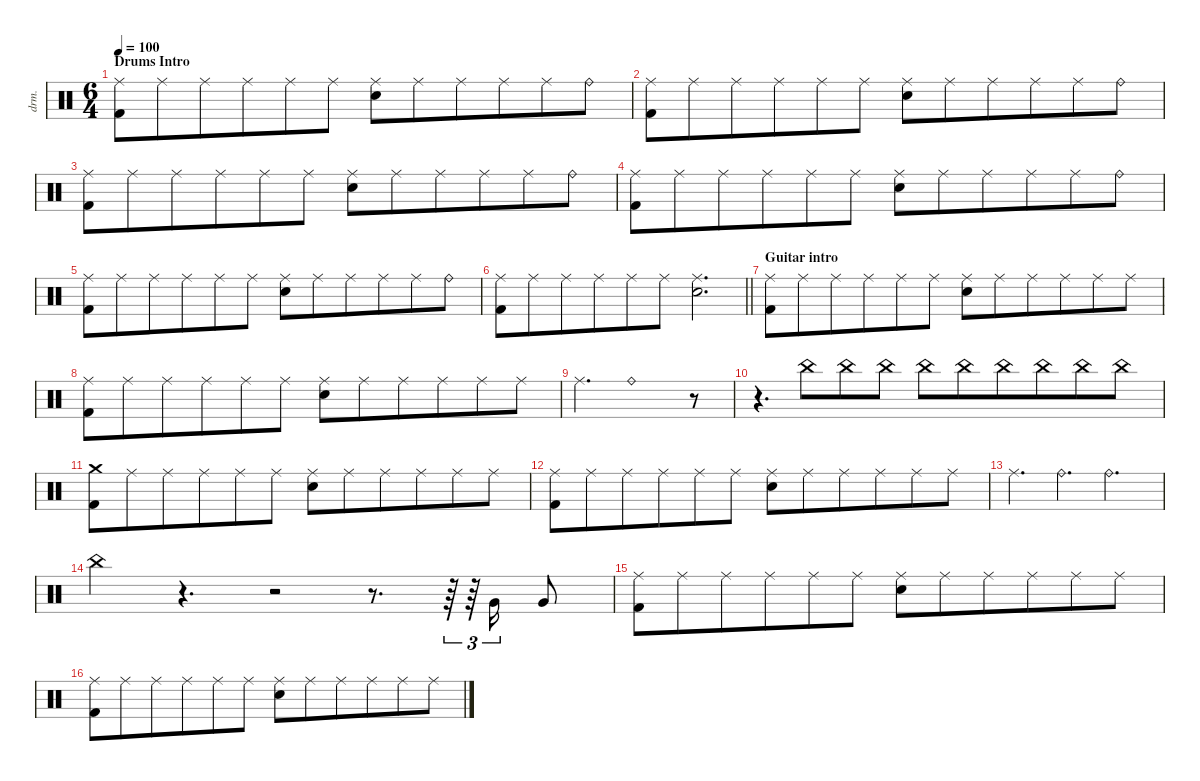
\defaultSystemsLayout 4
\hideDynamics
\bracketExtendMode nobrackets
\otherSystemsTrackNameOrientation horizontal
\track ("Percussions" "drm.") {instrument percussion}
\staff {score}
\articulation defaults
\ts (6 4)
\beaming (8 6 6)
\section ("" "Drums Intro")
\tempo 100
\clef neutral
\ks c
("Kick (hit) 2" "Ride (middle)").8{dy f beam Down} "Ride (middle)".8{beam Down} "Ride (middle)".8{beam Down} "Ride (middle)".8{beam Down} "Ride (middle)".8{beam Down} "Ride (middle)".8{beam Down} ("Snare (hit) 2" "Ride (middle)").8{dy fff beam Down} "Ride (middle)".8{dy f beam Down} "Ride (middle)".8{beam Down} "Ride (middle)".8{beam Down} "Ride (middle)".8{beam Down} "Ride (bell)".8{beam Down} |
("Kick (hit) 2" "Ride (middle)").8{beam Down} "Ride (middle)".8{beam Down} "Ride (middle)".8{beam Down} "Ride (middle)".8{beam Down} "Ride (middle)".8{beam Down} "Ride (middle)".8{beam Down} ("Snare (hit) 2" "Ride (middle)").8{dy fff beam Down} "Ride (middle)".8{dy f beam Down} "Ride (middle)".8{beam Down} "Ride (middle)".8{beam Down} "Ride (middle)".8{beam Down} "Ride (bell)".8{beam Down} |
("Kick (hit) 2" "Ride (middle)").8{beam Down} "Ride (middle)".8{beam Down} "Ride (middle)".8{beam Down} "Ride (middle)".8{beam Down} "Ride (middle)".8{beam Down} "Ride (middle)".8{beam Down} ("Snare (hit) 2" "Ride (middle)").8{dy fff beam Down} "Ride (middle)".8{dy f beam Down} "Ride (middle)".8{beam Down} "Ride (middle)".8{beam Down} "Ride (middle)".8{beam Down} "Ride (bell)".8{beam Down} |
("Kick (hit) 2" "Ride (middle)").8{beam Down} "Ride (middle)".8{beam Down} "Ride (middle)".8{beam Down} "Ride (middle)".8{beam Down} "Ride (middle)".8{beam Down} "Ride (middle)".8{beam Down} ("Snare (hit) 2" "Ride (middle)").8{dy fff beam Down} "Ride (middle)".8{dy f beam Down} "Ride (middle)".8{beam Down} "Ride (middle)".8{beam Down} "Ride (middle)".8{beam Down} "Ride (bell)".8{beam Down} |
("Kick (hit) 2" "Ride (middle)").8{beam Down} "Ride (middle)".8{beam Down} "Ride (middle)".8{beam Down} "Ride (middle)".8{beam Down} "Ride (middle)".8{beam Down} "Ride (middle)".8{beam Down} ("Snare (hit) 2" "Ride (middle)").8{dy fff beam Down} "Ride (middle)".8{dy f beam Down} "Ride (middle)".8{beam Down} "Ride (middle)".8{beam Down} "Ride (middle)".8{beam Down} "Ride (bell)".8{beam Down} |
\barLineRight lightlight
("Kick (hit) 2" "Ride (middle)").8{beam Down} "Ride (middle)".8{beam Down} "Ride (middle)".8{beam Down} "Ride (middle)".8{beam Down} "Ride (middle)".8{beam Down} "Ride (middle)".8{beam Down} ("Snare (hit) 2" "Ride (middle)").2{d dy fff beam Down} |
\section ("" "Guitar intro")
("Kick (hit) 2" "Ride (middle)").8{dy f beam Down} "Ride (middle)".8{beam Down} "Ride (middle)".8{beam Down} "Ride (middle)".8{beam Down} "Ride (middle)".8{beam Down} "Ride (middle)".8{beam Down} ("Snare (hit) 2" "Ride (middle)").8{dy fff beam Down} "Ride (middle)".8{dy f beam Down} "Ride (middle)".8{beam Down} "Ride (middle)".8{beam Down} "Ride (middle)".8{beam Down} "Ride (middle)".8{beam Down} |
("Kick (hit) 2" "Ride (middle)").8{beam Down} "Ride (middle)".8{beam Down} "Ride (middle)".8{beam Down} "Ride (middle)".8{beam Down} "Ride (middle)".8{beam Down} "Ride (middle)".8{beam Down} ("Snare (hit) 2" "Ride (middle)").8{dy fff beam Down} "Ride (middle)".8{dy f beam Down} "Ride (middle)".8{beam Down} "Ride (middle)".8{beam Down} "Ride (middle)".8{beam Down} "Ride (middle)".8{beam Down} |
"Ride (middle)".4{d beam Down} "Ride (bell)".1{beam Down} r.8{beam Down} |
r.4{d beam Down} "China (hit)".8{dy ppp beam Down} "China (hit)".8{dy pp beam Down} "China (hit)".8{dy p beam Down} "China (hit)".8{dy mp beam Down} "China (hit)".8{dy mf beam Down} "China (hit)".8{dy f beam Down} "China (hit)".8{dy ff beam Down} "China (hit)".8{beam Down} "China (hit)".8{dy fff beam Down} |
("Crash medium (hit)" "Kick (hit) 2").8{dy f beam Down} "Ride (middle)".8{beam Down} "Ride (middle)".8{beam Down} "Ride (middle)".8{beam Down} "Ride (middle)".8{beam Down} "Ride (middle)".8{beam Down} ("Snare (hit) 2" "Ride (middle)").8{dy fff beam Down} "Ride (middle)".8{dy f beam Down} "Ride (middle)".8{beam Down} "Ride (middle)".8{beam Down} "Ride (middle)".8{beam Down} "Ride (middle)".8{beam Down} |
("Kick (hit) 2" "Ride (middle)").8{beam Down} "Ride (middle)".8{beam Down} "Ride (middle)".8{beam Down} "Ride (middle)".8{beam Down} "Ride (middle)".8{beam Down} "Ride (middle)".8{beam Down} ("Snare (hit) 2" "Ride (middle)").8{dy fff beam Down} "Ride (middle)".8{dy f beam Down} "Ride (middle)".8{beam Down} "Ride (middle)".8{beam Down} "Ride (middle)".8{beam Down} "Ride (middle)".8{beam Down} |
"Ride (middle)".4{d beam Down} "Ride (bell)".4{d beam Down} "Ride (bell)".2{d beam Down} |
"China (hit)".4{dy fff beam Down} r.4{d beam Down} r.2{beam Down} r.8{d beam Down} r.64{tu (3 2) beam Down} r.64{tu (3 2) beam Down} "Very Low Tom (hit)".16{tu (3 2) beam Up} "Very Low Tom (hit)".8{beam Up} |
("Kick (hit) 2" "Ride (middle)").8{dy f beam Down} "Ride (middle)".8{beam Down} "Ride (middle)".8{beam Down} "Ride (middle)".8{beam Down} "Ride (middle)".8{beam Down} "Ride (middle)".8{beam Down} ("Snare (hit) 2" "Ride (middle)").8{dy fff beam Down} "Ride (middle)".8{dy f beam Down} "Ride (middle)".8{beam Down} "Ride (middle)".8{beam Down} "Ride (middle)".8{beam Down} "Ride (middle)".8{beam Down} |
("Kick (hit) 2" "Ride (middle)").8{beam Down} "Ride (middle)".8{beam Down} "Ride (middle)".8{beam Down} "Ride (middle)".8{beam Down} "Ride (middle)".8{beam Down} "Ride (middle)".8{beam Down} ("Snare (hit) 2" "Ride (middle)").8{dy fff beam Down} "Ride (middle)".8{dy f beam Down} "Ride (middle)".8{beam Down} "Ride (middle)".8{beam Down} "Ride (middle)".8{beam Down} "Ride (middle)".8{beam Down}
